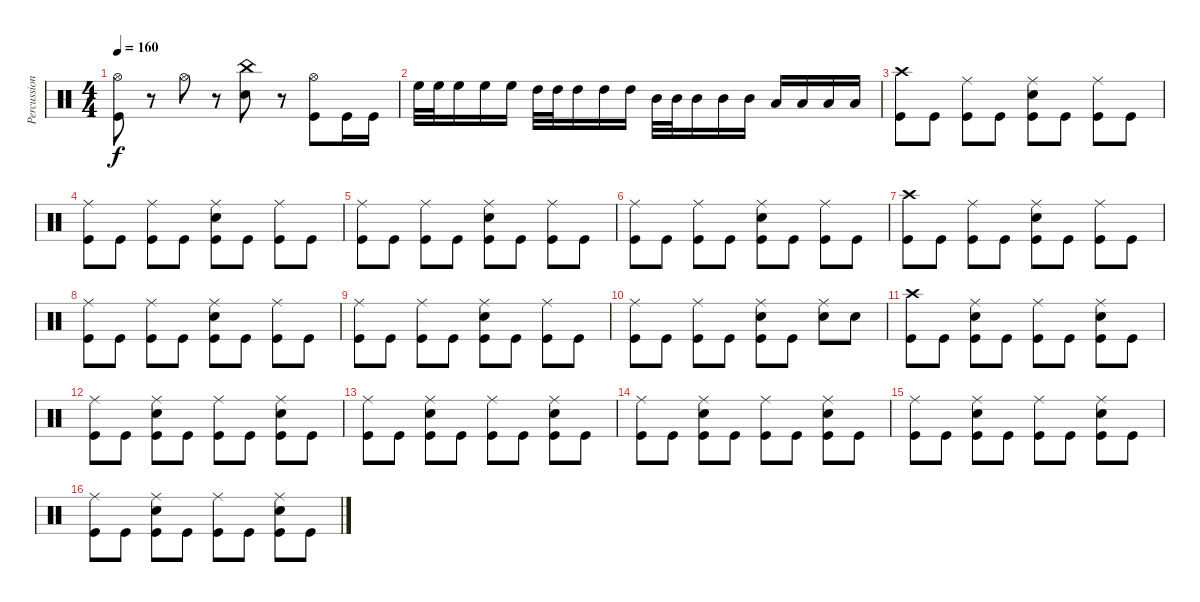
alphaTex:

\track ("Percussion" "Percussion") {instrument percussion}
\staff {score}
\articulation defaults
\ts (4 4)
\tempo 160
\clef neutral
\ks c
("Hi-Hat (open)" "Kick (hit)").8{dy f} r.8 "Hi-Hat (open)".8 r.8 ("China (hit)" "Electric Snare (hit)").8 r.8 ("Hi-Hat (open)" "Kick (hit)").8 "Kick (hit)".16 "Kick (hit)".16 |
"High Floor Tom (hit)".32 "High Floor Tom (hit)".32 "High Floor Tom (hit)".16 "High Floor Tom (hit)".16 "High Floor Tom (hit)".16 "High Tom (hit)".32 "High Tom (hit)".32 "High Tom (hit)".16 "High Tom (hit)".16 "High Tom (hit)".16 "Mid Tom (hit)".32 "Mid Tom (hit)".32 "Mid Tom (hit)".16 "Mid Tom (hit)".16 "Mid Tom (hit)".16 "Low Tom (hit)".16 "Low Tom (hit)".16 "Low Tom (hit)".16 "Low Tom (hit)".16 |
("Crash high (hit)" "Kick (hit)").8 "Kick (hit)".8 ("Ride (middle)" "Kick (hit)").8 "Kick (hit)".8 ("Ride (middle)" "Electric Snare (hit)" "Kick (hit)").8 "Kick (hit)".8 ("Ride (middle)" "Kick (hit)").8 "Kick (hit)".8 |
("Ride (middle)" "Kick (hit)").8 "Kick (hit)".8 ("Ride (middle)" "Kick (hit)").8 "Kick (hit)".8 ("Ride (middle)" "Electric Snare (hit)" "Kick (hit)").8 "Kick (hit)".8 ("Ride (middle)" "Kick (hit)").8 "Kick (hit)".8 |
("Ride (middle)" "Kick (hit)").8 "Kick (hit)".8 ("Ride (middle)" "Kick (hit)").8 "Kick (hit)".8 ("Ride (middle)" "Electric Snare (hit)" "Kick (hit)").8 "Kick (hit)".8 ("Ride (middle)" "Kick (hit)").8 "Kick (hit)".8 |
("Ride (middle)" "Kick (hit)").8 "Kick (hit)".8 ("Ride (middle)" "Kick (hit)").8 "Kick (hit)".8 ("Ride (middle)" "Electric Snare (hit)" "Kick (hit)").8 "Kick (hit)".8 ("Ride (middle)" "Kick (hit)").8 "Kick (hit)".8 |
("Crash high (hit)" "Kick (hit)").8 "Kick (hit)".8 ("Ride (middle)" "Kick (hit)").8 "Kick (hit)".8 ("Ride (middle)" "Electric Snare (hit)" "Kick (hit)").8 "Kick (hit)".8 ("Ride (middle)" "Kick (hit)").8 "Kick (hit)".8 |
("Ride (middle)" "Kick (hit)").8 "Kick (hit)".8 ("Ride (middle)" "Kick (hit)").8 "Kick (hit)".8 ("Ride (middle)" "Electric Snare (hit)" "Kick (hit)").8 "Kick (hit)".8 ("Ride (middle)" "Kick (hit)").8 "Kick (hit)".8 |
("Ride (middle)" "Kick (hit)").8 "Kick (hit)".8 ("Ride (middle)" "Kick (hit)").8 "Kick (hit)".8 ("Ride (middle)" "Electric Snare (hit)" "Kick (hit)").8 "Kick (hit)".8 ("Ride (middle)" "Kick (hit)").8 "Kick (hit)".8 |
("Ride (middle)" "Kick (hit)").8 "Kick (hit)".8 ("Ride (middle)" "Kick (hit)").8 "Kick (hit)".8 ("Ride (middle)" "Electric Snare (hit)" "Kick (hit)").8 "Kick (hit)".8 ("Ride (middle)" "Electric Snare (hit)").8 "Electric Snare (hit)".8 |
("Crash high (hit)" "Kick (hit)").8 "Kick (hit)".8 ("Ride (middle)" "Electric Snare (hit)" "Kick (hit)").8 "Kick (hit)".8 ("Ride (middle)" "Kick (hit)").8 "Kick (hit)".8 ("Ride (middle)" "Electric Snare (hit)" "Kick (hit)").8 "Kick (hit)".8 |
("Ride (middle)" "Kick (hit)").8 "Kick (hit)".8 ("Ride (middle)" "Electric Snare (hit)" "Kick (hit)").8 "Kick (hit)".8 ("Ride (middle)" "Kick (hit)").8 "Kick (hit)".8 ("Ride (middle)" "Electric Snare (hit)" "Kick (hit)").8 "Kick (hit)".8 |
("Ride (middle)" "Kick (hit)").8 "Kick (hit)".8 ("Ride (middle)" "Electric Snare (hit)" "Kick (hit)").8 "Kick (hit)".8 ("Ride (middle)" "Kick (hit)").8 "Kick (hit)".8 ("Ride (middle)" "Electric Snare (hit)" "Kick (hit)").8 "Kick (hit)".8 |
("Ride (middle)" "Kick (hit)").8 "Kick (hit)".8 ("Ride (middle)" "Electric Snare (hit)" "Kick (hit)").8 "Kick (hit)".8 ("Ride (middle)" "Kick (hit)").8 "Kick (hit)".8 ("Ride (middle)" "Electric Snare (hit)" "Kick (hit)").8 "Kick (hit)".8 |
("Ride (middle)" "Kick (hit)").8 "Kick (hit)".8 ("Ride (middle)" "Electric Snare (hit)" "Kick (hit)").8 "Kick (hit)".8 ("Ride (middle)" "Kick (hit)").8 "Kick (hit)".8 ("Ride (middle)" "Electric Snare (hit)" "Kick (hit)").8 "Kick (hit)".8 |
("Ride (middle)" "Kick (hit)").8 "Kick (hit)".8 ("Ride (middle)" "Electric Snare (hit)" "Kick (hit)").8 "Kick (hit)".8 ("Ride (middle)" "Kick (hit)").8 "Kick (hit)".8 ("Ride (middle)" "Electric Snare (hit)" "Kick (hit)").8 "Kick (hit)".8
